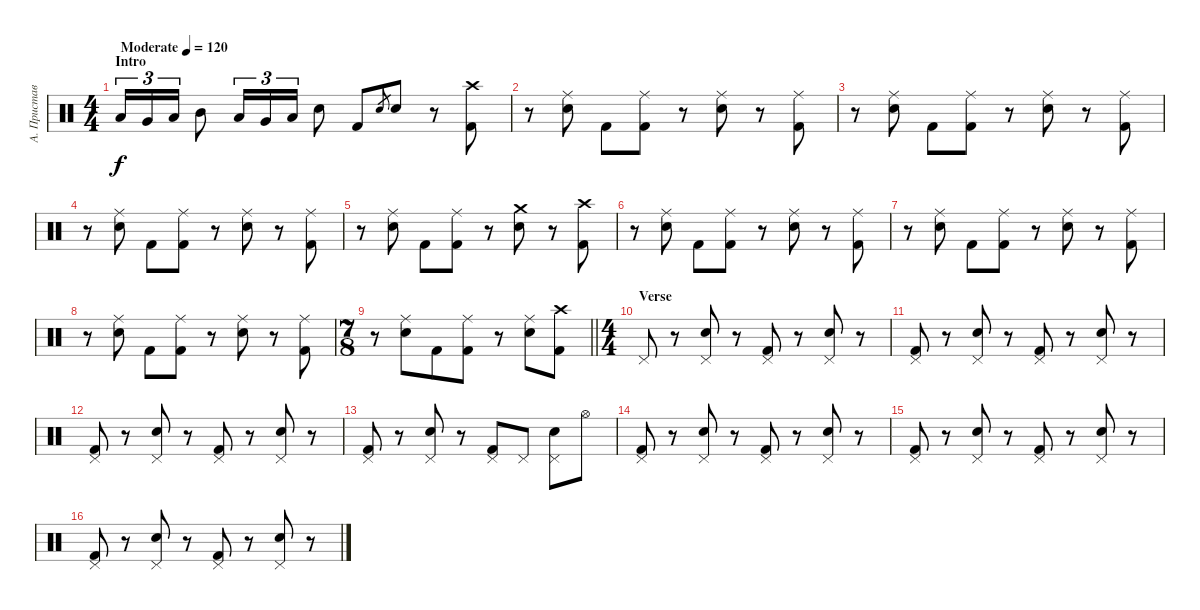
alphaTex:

\track ("А. Приставка" "А. Пристав") {instrument percussion}
\staff {score}
\articulation defaults
\ts (4 4)
\section ("" "Intro")
\tempo (120 "Moderate")
\clef neutral
\ks c "Low Floor Tom (hit)".16{tu (3 2) dy f} "Very Low Tom (hit)".16{tu (3 2)} "Low Tom (hit)".16{tu (3 2)} "Mid Tom (hit)".8 "Low Floor Tom (hit)".16{tu (3 2)} "Very Low Tom (hit)".16{tu (3 2)} "Low Tom (hit)".16{tu (3 2)} "Electric Snare (hit)".8 "Kick (hit) 2".8 "Electric Snare (hit)".8{gr} "Electric Snare (hit)".8
r.8 ("Crash high (hit)" "Kick (hit) 2").8 |
r.8 ("Ride (middle)" "Electric Snare (hit)").8 "Kick (hit) 2".8 ("Ride (middle)" "Kick (hit) 2").8 r.8 ("Ride (middle)" "Electric Snare (hit)").8 r.8 ("Ride (middle)" "Kick (hit) 2").8 |
r.8 ("Ride (middle)" "Electric Snare (hit)").8 "Kick (hit) 2".8 ("Ride (middle)" "Kick (hit) 2").8 r.8 ("Ride (middle)" "Electric Snare (hit)").8 r.8 ("Ride (middle)" "Kick (hit) 2").8 |
r.8 ("Ride (middle)" "Electric Snare (hit)").8 "Kick (hit) 2".8 ("Ride (middle)" "Kick (hit) 2").8 r.8 ("Ride (middle)" "Electric Snare (hit)").8 r.8 ("Ride (middle)" "Kick (hit) 2").8 |
r.8 ("Ride (middle)" "Electric Snare (hit)").8 "Kick (hit) 2".8 ("Ride (middle)" "Kick (hit) 2").8 r.8 ("Crash medium (hit)" "Electric Snare (hit)").8 r.8 ("Crash high (hit)" "Kick (hit) 2").8 |
r.8 ("Ride (middle)" "Electric Snare (hit)").8 "Kick (hit) 2".8 ("Ride (middle)" "Kick (hit) 2").8 r.8 ("Ride (middle)" "Electric Snare (hit)").8 r.8 ("Ride (middle)" "Kick (hit) 2").8 |
r.8 ("Ride (middle)" "Electric Snare (hit)").8 "Kick (hit) 2".8 ("Ride (middle)" "Kick (hit) 2").8 r.8 ("Ride (middle)" "Electric Snare (hit)").8 r.8 ("Ride (middle)" "Kick (hit) 2").8 |
r.8 ("Ride (middle)" "Electric Snare (hit)").8 "Kick (hit) 2".8 ("Ride (middle)" "Kick (hit) 2").8 r.8 ("Ride (middle)" "Electric Snare (hit)").8 r.8 ("Ride (middle)" "Kick (hit) 2").8 |
\ts (7 8)
\barLineRight lightlight
r.8 ("Ride (middle)" "Electric Snare (hit)").8 "Kick (hit) 2".8 ("Ride (middle)" "Kick (hit) 2").8 r.8 ("Ride (middle)" "Electric Snare (hit)").8 ("Crash high (hit)" "Kick (hit) 2").8 |
\ts (4 4)
\section ("" "Verse")
"Pedal Hi-Hat (hit)".8 r.8 ("Pedal Hi-Hat (hit)" "Electric Snare (hit)").8 r.8 ("Pedal Hi-Hat (hit)" "Kick (hit) 2").8 r.8 ("Pedal Hi-Hat (hit)" "Electric Snare (hit)").8 r.8 |
("Pedal Hi-Hat (hit)" "Kick (hit) 2").8 r.8 ("Pedal Hi-Hat (hit)" "Electric Snare (hit)").8 r.8 ("Pedal Hi-Hat (hit)" "Kick (hit) 2").8 r.8 ("Pedal Hi-Hat (hit)" "Electric Snare (hit)").8 r.8 |
("Pedal Hi-Hat (hit)" "Kick (hit) 2").8 r.8 ("Pedal Hi-Hat (hit)" "Electric Snare (hit)").8 r.8 ("Pedal Hi-Hat (hit)" "Kick (hit) 2").8 r.8 ("Pedal Hi-Hat (hit)" "Electric Snare (hit)").8 r.8 |
("Pedal Hi-Hat (hit)" "Kick (hit) 2").8 r.8 ("Pedal Hi-Hat (hit)" "Electric Snare (hit)").8 r.8 ("Pedal Hi-Hat (hit)" "Kick (hit) 2").8 "Pedal Hi-Hat (hit)".8 ("Pedal Hi-Hat (hit)" "Electric Snare (hit)").8 "Hi-Hat (open)".8 |
("Pedal Hi-Hat (hit)" "Kick (hit) 2").8 r.8 ("Pedal Hi-Hat (hit)" "Electric Snare (hit)").8 r.8 ("Pedal Hi-Hat (hit)" "Kick (hit) 2").8 r.8 ("Pedal Hi-Hat (hit)" "Electric Snare (hit)").8 r.8 |
("Pedal Hi-Hat (hit)" "Kick (hit) 2").8 r.8 ("Pedal Hi-Hat (hit)" "Electric Snare (hit)").8 r.8 ("Pedal Hi-Hat (hit)" "Kick (hit) 2").8 r.8 ("Pedal Hi-Hat (hit)" "Electric Snare (hit)").8 r.8 |
("Pedal Hi-Hat (hit)" "Kick (hit) 2").8 r.8 ("Pedal Hi-Hat (hit)" "Electric Snare (hit)").8 r.8 ("Pedal Hi-Hat (hit)" "Kick (hit) 2").8 r.8 ("Pedal Hi-Hat (hit)" "Electric Snare (hit)").8 r.8
